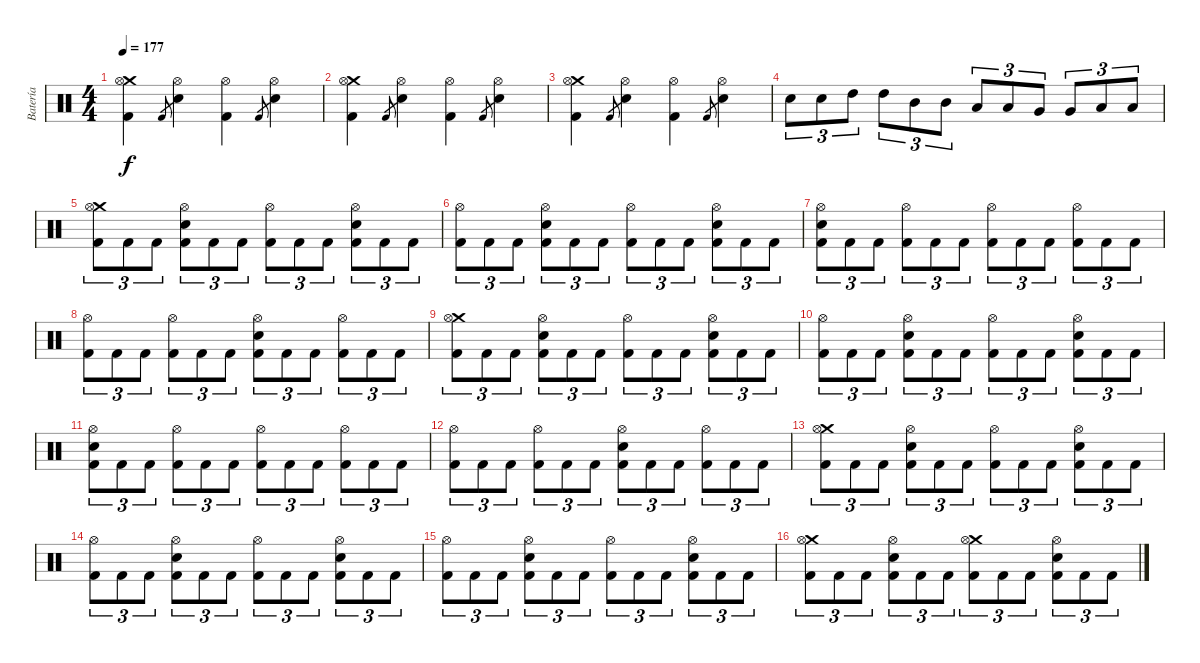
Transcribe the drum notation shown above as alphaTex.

\track ("Batería" "Batería") {instrument percussion}
\staff {score}
\articulation defaults
\ts (4 4)
\tempo 177
\clef neutral
\ks c
("Crash medium (hit)" "Hi-Hat (open)" "Kick (hit) 2").4{dy f} "Kick (hit) 2".8{gr} ("Hi-Hat (open)" "Snare (hit) 2").4 ("Hi-Hat (open)" "Kick (hit) 2").4 "Kick (hit) 2".8{gr} ("Hi-Hat (open)" "Snare (hit) 2").4 |
("Crash medium (hit)" "Hi-Hat (open)" "Kick (hit) 2").4 "Kick (hit) 2".8{gr} ("Hi-Hat (open)" "Snare (hit) 2").4 ("Hi-Hat (open)" "Kick (hit) 2").4 "Kick (hit) 2".8{gr} ("Hi-Hat (open)" "Snare (hit) 2").4 |
("Crash medium (hit)" "Hi-Hat (open)" "Kick (hit) 2").4 "Kick (hit) 2".8{gr} ("Hi-Hat (open)" "Snare (hit) 2").4 ("Hi-Hat (open)" "Kick (hit) 2").4 "Kick (hit) 2".8{gr} ("Hi-Hat (open)" "Snare (hit) 2").4 |
"Snare (hit) 2".8{tu (3 2)} "Snare (hit) 2".8{tu (3 2)} "High Tom (hit)".8{tu (3 2)} "High Tom (hit)".8{tu (3 2)} "Mid Tom (hit)".8{tu (3 2)} "Mid Tom (hit)".8{tu (3 2)} "Low Tom (hit)".8{tu (3 2)} "Low Tom (hit)".8{tu (3 2)} "Very Low Tom (hit)".8{tu (3 2)} "Very Low Tom (hit)".8{tu (3 2)} "Low Floor Tom (hit)".8{tu (3 2)} "Low Floor Tom (hit)".8{tu (3 2)} |
("Crash medium (hit)" "Hi-Hat (open)" "Kick (hit) 2").8{tu (3 2)} "Kick (hit) 2".8{tu (3 2)} "Kick (hit) 2".8{tu (3 2)} ("Hi-Hat (open)" "Snare (hit) 2" "Kick (hit) 2").8{tu (3 2)} "Kick (hit) 2".8{tu (3 2)} "Kick (hit) 2".8{tu (3 2)} ("Hi-Hat (open)" "Kick (hit) 2").8{tu (3 2)} "Kick (hit) 2".8{tu (3 2)} "Kick (hit) 2".8{tu (3 2)} ("Hi-Hat (open)" "Snare (hit) 2" "Kick (hit) 2").8{tu (3 2)} "Kick (hit) 2".8{tu (3 2)} "Kick (hit) 2".8{tu (3 2)} |
("Hi-Hat (open)" "Kick (hit) 2").8{tu (3 2)} "Kick (hit) 2".8{tu (3 2)} "Kick (hit) 2".8{tu (3 2)} ("Hi-Hat (open)" "Snare (hit) 2" "Kick (hit) 2").8{tu (3 2)} "Kick (hit) 2".8{tu (3 2)} "Kick (hit) 2".8{tu (3 2)} ("Hi-Hat (open)" "Kick (hit) 2").8{tu (3 2)} "Kick (hit) 2".8{tu (3 2)} "Kick (hit) 2".8{tu (3 2)} ("Hi-Hat (open)" "Snare (hit) 2" "Kick (hit) 2").8{tu (3 2)} "Kick (hit) 2".8{tu (3 2)} "Kick (hit) 2".8{tu (3 2)} |
("Hi-Hat (open)" "Snare (hit) 2" "Kick (hit) 2").8{tu (3 2)} "Kick (hit) 2".8{tu (3 2)} "Kick (hit) 2".8{tu (3 2)} ("Hi-Hat (open)" "Kick (hit) 2").8{tu (3 2)} "Kick (hit) 2".8{tu (3 2)} "Kick (hit) 2".8{tu (3 2)} ("Hi-Hat (open)" "Kick (hit) 2").8{tu (3 2)} "Kick (hit) 2".8{tu (3 2)} "Kick (hit) 2".8{tu (3 2)} ("Hi-Hat (open)" "Kick (hit) 2").8{tu (3 2)} "Kick (hit) 2".8{tu (3 2)} "Kick (hit) 2".8{tu (3 2)} |
("Hi-Hat (open)" "Kick (hit) 2").8{tu (3 2)} "Kick (hit) 2".8{tu (3 2)} "Kick (hit) 2".8{tu (3 2)} ("Hi-Hat (open)" "Kick (hit) 2").8{tu (3 2)} "Kick (hit) 2".8{tu (3 2)} "Kick (hit) 2".8{tu (3 2)} ("Hi-Hat (open)" "Snare (hit) 2" "Kick (hit) 2").8{tu (3 2)} "Kick (hit) 2".8{tu (3 2)} "Kick (hit) 2".8{tu (3 2)} ("Hi-Hat (open)" "Kick (hit) 2").8{tu (3 2)} "Kick (hit) 2".8{tu (3 2)} "Kick (hit) 2".8{tu (3 2)} |
("Crash medium (hit)" "Hi-Hat (open)" "Kick (hit) 2").8{tu (3 2)} "Kick (hit) 2".8{tu (3 2)} "Kick (hit) 2".8{tu (3 2)} ("Hi-Hat (open)" "Snare (hit) 2" "Kick (hit) 2").8{tu (3 2)} "Kick (hit) 2".8{tu (3 2)} "Kick (hit) 2".8{tu (3 2)} ("Hi-Hat (open)" "Kick (hit) 2").8{tu (3 2)} "Kick (hit) 2".8{tu (3 2)} "Kick (hit) 2".8{tu (3 2)} ("Hi-Hat (open)" "Snare (hit) 2" "Kick (hit) 2").8{tu (3 2)} "Kick (hit) 2".8{tu (3 2)} "Kick (hit) 2".8{tu (3 2)} |
("Hi-Hat (open)" "Kick (hit) 2").8{tu (3 2)} "Kick (hit) 2".8{tu (3 2)} "Kick (hit) 2".8{tu (3 2)} ("Hi-Hat (open)" "Snare (hit) 2" "Kick (hit) 2").8{tu (3 2)} "Kick (hit) 2".8{tu (3 2)} "Kick (hit) 2".8{tu (3 2)} ("Hi-Hat (open)" "Kick (hit) 2").8{tu (3 2)} "Kick (hit) 2".8{tu (3 2)} "Kick (hit) 2".8{tu (3 2)} ("Hi-Hat (open)" "Snare (hit) 2" "Kick (hit) 2").8{tu (3 2)} "Kick (hit) 2".8{tu (3 2)} "Kick (hit) 2".8{tu (3 2)} |
("Hi-Hat (open)" "Snare (hit) 2" "Kick (hit) 2").8{tu (3 2)} "Kick (hit) 2".8{tu (3 2)} "Kick (hit) 2".8{tu (3 2)} ("Hi-Hat (open)" "Kick (hit) 2").8{tu (3 2)} "Kick (hit) 2".8{tu (3 2)} "Kick (hit) 2".8{tu (3 2)} ("Hi-Hat (open)" "Kick (hit) 2").8{tu (3 2)} "Kick (hit) 2".8{tu (3 2)} "Kick (hit) 2".8{tu (3 2)} ("Hi-Hat (open)" "Kick (hit) 2").8{tu (3 2)} "Kick (hit) 2".8{tu (3 2)} "Kick (hit) 2".8{tu (3 2)} |
("Hi-Hat (open)" "Kick (hit) 2").8{tu (3 2)} "Kick (hit) 2".8{tu (3 2)} "Kick (hit) 2".8{tu (3 2)} ("Hi-Hat (open)" "Kick (hit) 2").8{tu (3 2)} "Kick (hit) 2".8{tu (3 2)} "Kick (hit) 2".8{tu (3 2)} ("Hi-Hat (open)" "Snare (hit) 2" "Kick (hit) 2").8{tu (3 2)} "Kick (hit) 2".8{tu (3 2)} "Kick (hit) 2".8{tu (3 2)} ("Hi-Hat (open)" "Kick (hit) 2").8{tu (3 2)} "Kick (hit) 2".8{tu (3 2)} "Kick (hit) 2".8{tu (3 2)} |
("Crash medium (hit)" "Hi-Hat (open)" "Kick (hit) 2").8{tu (3 2)} "Kick (hit) 2".8{tu (3 2)} "Kick (hit) 2".8{tu (3 2)} ("Hi-Hat (open)" "Snare (hit) 2" "Kick (hit) 2").8{tu (3 2)} "Kick (hit) 2".8{tu (3 2)} "Kick (hit) 2".8{tu (3 2)} ("Hi-Hat (open)" "Kick (hit) 2").8{tu (3 2)} "Kick (hit) 2".8{tu (3 2)} "Kick (hit) 2".8{tu (3 2)} ("Hi-Hat (open)" "Snare (hit) 2" "Kick (hit) 2").8{tu (3 2)} "Kick (hit) 2".8{tu (3 2)} "Kick (hit) 2".8{tu (3 2)} |
("Hi-Hat (open)" "Kick (hit) 2").8{tu (3 2)} "Kick (hit) 2".8{tu (3 2)} "Kick (hit) 2".8{tu (3 2)} ("Hi-Hat (open)" "Snare (hit) 2" "Kick (hit) 2").8{tu (3 2)} "Kick (hit) 2".8{tu (3 2)} "Kick (hit) 2".8{tu (3 2)} ("Hi-Hat (open)" "Kick (hit) 2").8{tu (3 2)} "Kick (hit) 2".8{tu (3 2)} "Kick (hit) 2".8{tu (3 2)} ("Hi-Hat (open)" "Snare (hit) 2" "Kick (hit) 2").8{tu (3 2)} "Kick (hit) 2".8{tu (3 2)} "Kick (hit) 2".8{tu (3 2)} |
("Hi-Hat (open)" "Kick (hit) 2").8{tu (3 2)} "Kick (hit) 2".8{tu (3 2)} "Kick (hit) 2".8{tu (3 2)} ("Hi-Hat (open)" "Snare (hit) 2" "Kick (hit) 2").8{tu (3 2)} "Kick (hit) 2".8{tu (3 2)} "Kick (hit) 2".8{tu (3 2)} ("Hi-Hat (open)" "Kick (hit) 2").8{tu (3 2)} "Kick (hit) 2".8{tu (3 2)} "Kick (hit) 2".8{tu (3 2)} ("Hi-Hat (open)" "Snare (hit) 2" "Kick (hit) 2").8{tu (3 2)} "Kick (hit) 2".8{tu (3 2)} "Kick (hit) 2".8{tu (3 2)} |
("Crash medium (hit)" "Hi-Hat (open)" "Kick (hit) 2").8{tu (3 2)} "Kick (hit) 2".8{tu (3 2)} "Kick (hit) 2".8{tu (3 2)} ("Hi-Hat (open)" "Snare (hit) 2" "Kick (hit) 2").8{tu (3 2)} "Kick (hit) 2".8{tu (3 2)} "Kick (hit) 2".8{tu (3 2)} ("Crash medium (hit)" "Hi-Hat (open)" "Kick (hit) 2").8{tu (3 2)} "Kick (hit) 2".8{tu (3 2)} "Kick (hit) 2".8{tu (3 2)} ("Hi-Hat (open)" "Snare (hit) 2" "Kick (hit) 2").8{tu (3 2)} "Kick (hit) 2".8{tu (3 2)} "Kick (hit) 2".8{tu (3 2)}
